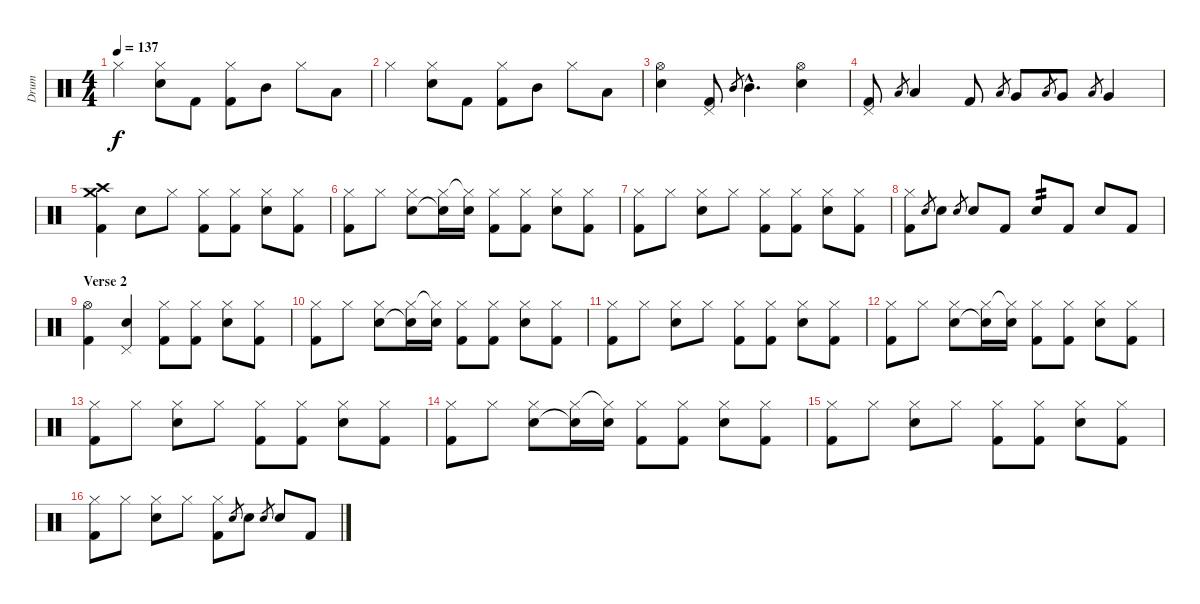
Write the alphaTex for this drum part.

\track ("Drum" "Drum") {instrument percussion}
\staff {score}
\articulation defaults
\ts (4 4)
\tempo 137
\clef neutral
\ks c "Hi-Hat (closed)".4{dy f}
("Hi-Hat (closed)" "Electric Snare (hit)").8 "Kick (hit) 2".8 ("Hi-Hat (closed)" "Kick (hit) 2").8 "Mid Tom (hit)".8 "Hi-Hat (closed)".8 "Low Tom (hit)".8 |
"Hi-Hat (closed)".4 ("Hi-Hat (closed)" "Electric Snare (hit)").8 "Kick (hit) 2".8 ("Hi-Hat (closed)" "Kick (hit) 2").8 "Mid Tom (hit)".8 "Hi-Hat (closed)".8 "Low Tom (hit)".8 |
("Hi-Hat (open)" "Electric Snare (hit)").4 ("Pedal Hi-Hat (hit)" "Kick (hit) 2").8 "Mid Tom (hit)".8{gr} "Mid Tom (hit)"{hac}.4{d} ("Hi-Hat (open)" "Electric Snare (hit)").4 |
("Pedal Hi-Hat (hit)" "Kick (hit) 2").8 "Low Tom (hit)".8{gr} "Low Tom (hit)".4 "Kick (hit) 2".8 "Low Floor Tom (hit)".8{gr} "Very Low Tom (hit)".8 "Low Floor Tom (hit)".8{gr} "Very Low Tom (hit)".8 "Low Floor Tom (hit)".8{gr} "Very Low Tom (hit)".4 |
("Kick (hit) 2" "Crash high (hit)" "Crash medium (hit)").4 "Electric Snare (hit)".8 "Hi-Hat (closed)".8 ("Hi-Hat (closed)" "Kick (hit) 2").8 ("Hi-Hat (closed)" "Kick (hit) 2").8 ("Hi-Hat (closed)" "Electric Snare (hit)").8 ("Hi-Hat (closed)" "Kick (hit) 2").8 |
("Hi-Hat (closed)" "Kick (hit) 2").8 "Hi-Hat (closed)".8 ("Hi-Hat (closed)" "Electric Snare (hit)").8 ("Hi-Hat (closed)" "Electric Snare (hit)"{t}).16 ("Hi-Hat (closed)"{t} "Electric Snare (hit)").16 ("Hi-Hat (closed)" "Kick (hit) 2").8 ("Hi-Hat (closed)" "Kick (hit) 2").8 ("Hi-Hat (closed)" "Electric Snare (hit)").8 ("Hi-Hat (closed)" "Kick (hit) 2").8 |
("Hi-Hat (closed)" "Kick (hit) 2").8 "Hi-Hat (closed)".8 ("Hi-Hat (closed)" "Electric Snare (hit)").8 "Hi-Hat (closed)".8 ("Hi-Hat (closed)" "Kick (hit) 2").8 ("Hi-Hat (closed)" "Kick (hit) 2").8 ("Hi-Hat (closed)" "Electric Snare (hit)").8 ("Hi-Hat (closed)" "Kick (hit) 2").8 |
("Hi-Hat (closed)" "Kick (hit) 2").8 "Electric Snare (hit)".8{gr} "Electric Snare (hit)".8 "Electric Snare (hit)".8{gr} "Electric Snare (hit)".8 "Kick (hit) 2".8 "Electric Snare (hit)".8{tp 2} "Kick (hit) 2".8 "Electric Snare (hit)".8 "Kick (hit) 2".8 |
\section ("" "Verse 2")
("Hi-Hat (open)" "Kick (hit) 2").4 ("Pedal Hi-Hat (hit)" "Electric Snare (hit)").4 ("Hi-Hat (closed)" "Kick (hit) 2").8 ("Hi-Hat (closed)" "Kick (hit) 2").8 ("Hi-Hat (closed)" "Electric Snare (hit)").8 ("Hi-Hat (closed)" "Kick (hit) 2").8 |
("Hi-Hat (closed)" "Kick (hit) 2").8 "Hi-Hat (closed)".8 ("Hi-Hat (closed)" "Electric Snare (hit)").8 ("Hi-Hat (closed)" "Electric Snare (hit)"{t}).16 ("Hi-Hat (closed)"{t} "Electric Snare (hit)").16 ("Hi-Hat (closed)" "Kick (hit) 2").8 ("Hi-Hat (closed)" "Kick (hit) 2").8 ("Hi-Hat (closed)" "Electric Snare (hit)").8 ("Hi-Hat (closed)" "Kick (hit) 2").8 |
("Hi-Hat (closed)" "Kick (hit) 2").8 "Hi-Hat (closed)".8 ("Hi-Hat (closed)" "Electric Snare (hit)").8 "Hi-Hat (closed)".8 ("Hi-Hat (closed)" "Kick (hit) 2").8 ("Hi-Hat (closed)" "Kick (hit) 2").8 ("Hi-Hat (closed)" "Electric Snare (hit)").8 ("Hi-Hat (closed)" "Kick (hit) 2").8 |
("Hi-Hat (closed)" "Kick (hit) 2").8 "Hi-Hat (closed)".8 ("Hi-Hat (closed)" "Electric Snare (hit)").8 ("Hi-Hat (closed)" "Electric Snare (hit)"{t}).16 ("Hi-Hat (closed)"{t} "Electric Snare (hit)").16 ("Hi-Hat (closed)" "Kick (hit) 2").8 ("Hi-Hat (closed)" "Kick (hit) 2").8 ("Hi-Hat (closed)" "Electric Snare (hit)").8 ("Hi-Hat (closed)" "Kick (hit) 2").8 |
("Hi-Hat (closed)" "Kick (hit) 2").8 "Hi-Hat (closed)".8 ("Hi-Hat (closed)" "Electric Snare (hit)").8 "Hi-Hat (closed)".8 ("Hi-Hat (closed)" "Kick (hit) 2").8 ("Hi-Hat (closed)" "Kick (hit) 2").8 ("Hi-Hat (closed)" "Electric Snare (hit)").8 ("Hi-Hat (closed)" "Kick (hit) 2").8 |
("Hi-Hat (closed)" "Kick (hit) 2").8 "Hi-Hat (closed)".8 ("Hi-Hat (closed)" "Electric Snare (hit)").8 ("Hi-Hat (closed)" "Electric Snare (hit)"{t}).16 ("Hi-Hat (closed)"{t} "Electric Snare (hit)").16 ("Hi-Hat (closed)" "Kick (hit) 2").8 ("Hi-Hat (closed)" "Kick (hit) 2").8 ("Hi-Hat (closed)" "Electric Snare (hit)").8 ("Hi-Hat (closed)" "Kick (hit) 2").8 |
("Hi-Hat (closed)" "Kick (hit) 2").8 "Hi-Hat (closed)".8 ("Hi-Hat (closed)" "Electric Snare (hit)").8 "Hi-Hat (closed)".8 ("Hi-Hat (closed)" "Kick (hit) 2").8 ("Hi-Hat (closed)" "Kick (hit) 2").8 ("Hi-Hat (closed)" "Electric Snare (hit)").8 ("Hi-Hat (closed)" "Kick (hit) 2").8 |
("Hi-Hat (closed)" "Kick (hit) 2").8 "Hi-Hat (closed)".8 ("Hi-Hat (closed)" "Electric Snare (hit)").8 "Hi-Hat (closed)".8 ("Hi-Hat (closed)" "Kick (hit) 2").8 "Electric Snare (hit)".8{gr} "Electric Snare (hit)".8 "Electric Snare (hit)".8{gr} "Electric Snare (hit)".8 "Kick (hit) 2".8
